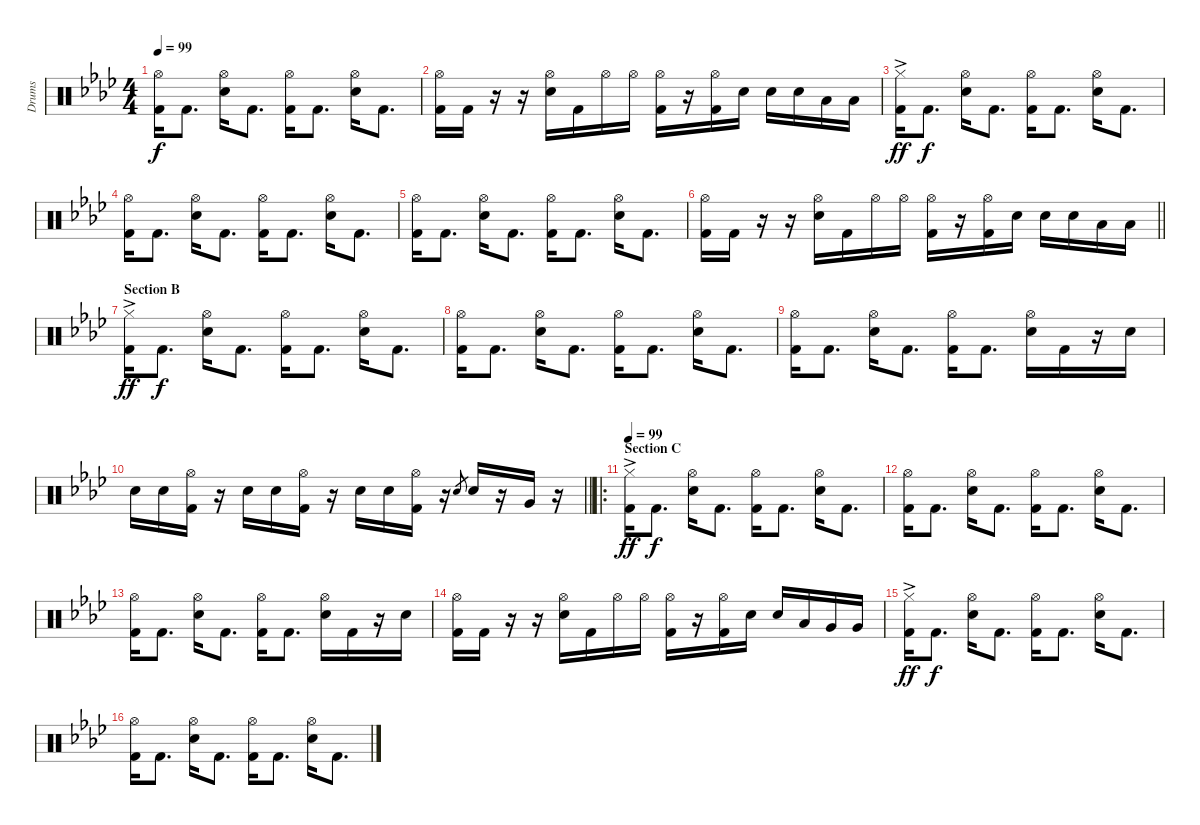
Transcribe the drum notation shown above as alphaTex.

\track ("Drums" "Drums") {instrument percussion}
\staff {score}
\articulation defaults
\ts (4 4)
\tempo 99
\clef neutral
\ks ab
("Hi-Hat (open)" "Kick (hit) 2").16{dy f} "Kick (hit) 2".8{d} ("Hi-Hat (open)" "Snare (hit) 2").16 "Kick (hit) 2".8{d} ("Hi-Hat (open)" "Kick (hit) 2").16 "Kick (hit) 2".8{d} ("Hi-Hat (open)" "Snare (hit) 2").16 "Kick (hit) 2".8{d} |
("Hi-Hat (open)" "Kick (hit) 2").16 "Kick (hit) 2".16 r.16 r.16 ("Hi-Hat (open)" "Snare (hit) 2").16 "Kick (hit) 2".16 "Hi-Hat (open)".16 "Hi-Hat (open)".16 ("Hi-Hat (open)" "Kick (hit) 2").16 r.16 ("Hi-Hat (open)" "Kick (hit) 2").16 "Snare (hit) 2".16 "Snare (hit) 2".16 "Snare (hit) 2".16 "Low Tom (hit)".16 "Low Tom (hit)".16 |
("Hi-Hat (closed)"{ac} "Kick (hit) 2").16{dy ff} "Kick (hit) 2".8{d dy f} ("Hi-Hat (open)" "Snare (hit) 2").16 "Kick (hit) 2".8{d} ("Hi-Hat (open)" "Kick (hit) 2").16 "Kick (hit) 2".8{d} ("Hi-Hat (open)" "Snare (hit) 2").16 "Kick (hit) 2".8{d} |
("Hi-Hat (open)" "Kick (hit) 2").16 "Kick (hit) 2".8{d} ("Hi-Hat (open)" "Snare (hit) 2").16 "Kick (hit) 2".8{d} ("Hi-Hat (open)" "Kick (hit) 2").16 "Kick (hit) 2".8{d} ("Hi-Hat (open)" "Snare (hit) 2").16 "Kick (hit) 2".8{d} |
("Hi-Hat (open)" "Kick (hit) 2").16 "Kick (hit) 2".8{d} ("Hi-Hat (open)" "Snare (hit) 2").16 "Kick (hit) 2".8{d} ("Hi-Hat (open)" "Kick (hit) 2").16 "Kick (hit) 2".8{d} ("Hi-Hat (open)" "Snare (hit) 2").16 "Kick (hit) 2".8{d} |
\barLineRight lightlight
("Hi-Hat (open)" "Kick (hit) 2").16 "Kick (hit) 2".16 r.16 r.16 ("Hi-Hat (open)" "Snare (hit) 2").16 "Kick (hit) 2".16 "Hi-Hat (open)".16 "Hi-Hat (open)".16 ("Hi-Hat (open)" "Kick (hit) 2").16 r.16 ("Hi-Hat (open)" "Kick (hit) 2").16 "Snare (hit) 2".16 "Snare (hit) 2".16 "Snare (hit) 2".16 "Low Tom (hit)".16 "Low Tom (hit)".16 |
\section ("" "Section B")
("Hi-Hat (closed)"{ac} "Kick (hit) 2").16{dy ff} "Kick (hit) 2".8{d dy f} ("Hi-Hat (open)" "Snare (hit) 2").16 "Kick (hit) 2".8{d} ("Hi-Hat (open)" "Kick (hit) 2").16 "Kick (hit) 2".8{d} ("Hi-Hat (open)" "Snare (hit) 2").16 "Kick (hit) 2".8{d} |
("Hi-Hat (open)" "Kick (hit) 2").16 "Kick (hit) 2".8{d} ("Hi-Hat (open)" "Snare (hit) 2").16 "Kick (hit) 2".8{d} ("Hi-Hat (open)" "Kick (hit) 2").16 "Kick (hit) 2".8{d} ("Hi-Hat (open)" "Snare (hit) 2").16 "Kick (hit) 2".8{d} |
("Hi-Hat (open)" "Kick (hit) 2").16 "Kick (hit) 2".8{d} ("Hi-Hat (open)" "Snare (hit) 2").16 "Kick (hit) 2".8{d} ("Hi-Hat (open)" "Kick (hit) 2").16 "Kick (hit) 2".8{d} ("Hi-Hat (open)" "Snare (hit) 2").16 "Kick (hit) 2".16 r.16 "Snare (hit) 2".16 |
\barLineRight lightlight "Snare (hit) 2".16 "Snare (hit) 2".16
("Hi-Hat (open)" "Kick (hit) 2").16 r.16 "Snare (hit) 2".16 "Snare (hit) 2".16 ("Hi-Hat (open)" "Kick (hit) 2").16 r.16 "Snare (hit) 2".16 "Snare (hit) 2".16 ("Hi-Hat (open)" "Kick (hit) 2").16 r.16 "Snare (hit) 2".8{gr} "Snare (hit) 2".16 r.16 "Very Low Tom (hit)".16 r.16 |
\ro
\section ("" "Section C")
\tempo 99
("Hi-Hat (closed)"{ac} "Kick (hit) 2").16{dy ff} "Kick (hit) 2".8{d dy f} ("Hi-Hat (open)" "Snare (hit) 2").16 "Kick (hit) 2".8{d} ("Hi-Hat (open)" "Kick (hit) 2").16 "Kick (hit) 2".8{d} ("Hi-Hat (open)" "Snare (hit) 2").16 "Kick (hit) 2".8{d} |
("Hi-Hat (open)" "Kick (hit) 2").16 "Kick (hit) 2".8{d} ("Hi-Hat (open)" "Snare (hit) 2").16 "Kick (hit) 2".8{d} ("Hi-Hat (open)" "Kick (hit) 2").16 "Kick (hit) 2".8{d} ("Hi-Hat (open)" "Snare (hit) 2").16 "Kick (hit) 2".8{d} |
("Hi-Hat (open)" "Kick (hit) 2").16 "Kick (hit) 2".8{d} ("Hi-Hat (open)" "Snare (hit) 2").16 "Kick (hit) 2".8{d} ("Hi-Hat (open)" "Kick (hit) 2").16 "Kick (hit) 2".8{d} ("Hi-Hat (open)" "Snare (hit) 2").16 "Kick (hit) 2".16 r.16 "Snare (hit) 2".16 |
("Hi-Hat (open)" "Kick (hit) 2").16 "Kick (hit) 2".16 r.16 r.16 ("Hi-Hat (open)" "Snare (hit) 2").16 "Kick (hit) 2".16 "Hi-Hat (open)".16 "Hi-Hat (open)".16 ("Hi-Hat (open)" "Kick (hit) 2").16 r.16 ("Hi-Hat (open)" "Kick (hit) 2").16 "Snare (hit) 2".16 "Snare (hit) 2".16 "Low Tom (hit)".16 "Very Low Tom (hit)".16 "Very Low Tom (hit)".16 |
("Hi-Hat (closed)"{ac} "Kick (hit) 2").16{dy ff} "Kick (hit) 2".8{d dy f} ("Hi-Hat (open)" "Snare (hit) 2").16 "Kick (hit) 2".8{d} ("Hi-Hat (open)" "Kick (hit) 2").16 "Kick (hit) 2".8{d} ("Hi-Hat (open)" "Snare (hit) 2").16 "Kick (hit) 2".8{d} |
("Hi-Hat (open)" "Kick (hit) 2").16 "Kick (hit) 2".8{d} ("Hi-Hat (open)" "Snare (hit) 2").16 "Kick (hit) 2".8{d} ("Hi-Hat (open)" "Kick (hit) 2").16 "Kick (hit) 2".8{d} ("Hi-Hat (open)" "Snare (hit) 2").16 "Kick (hit) 2".8{d}
